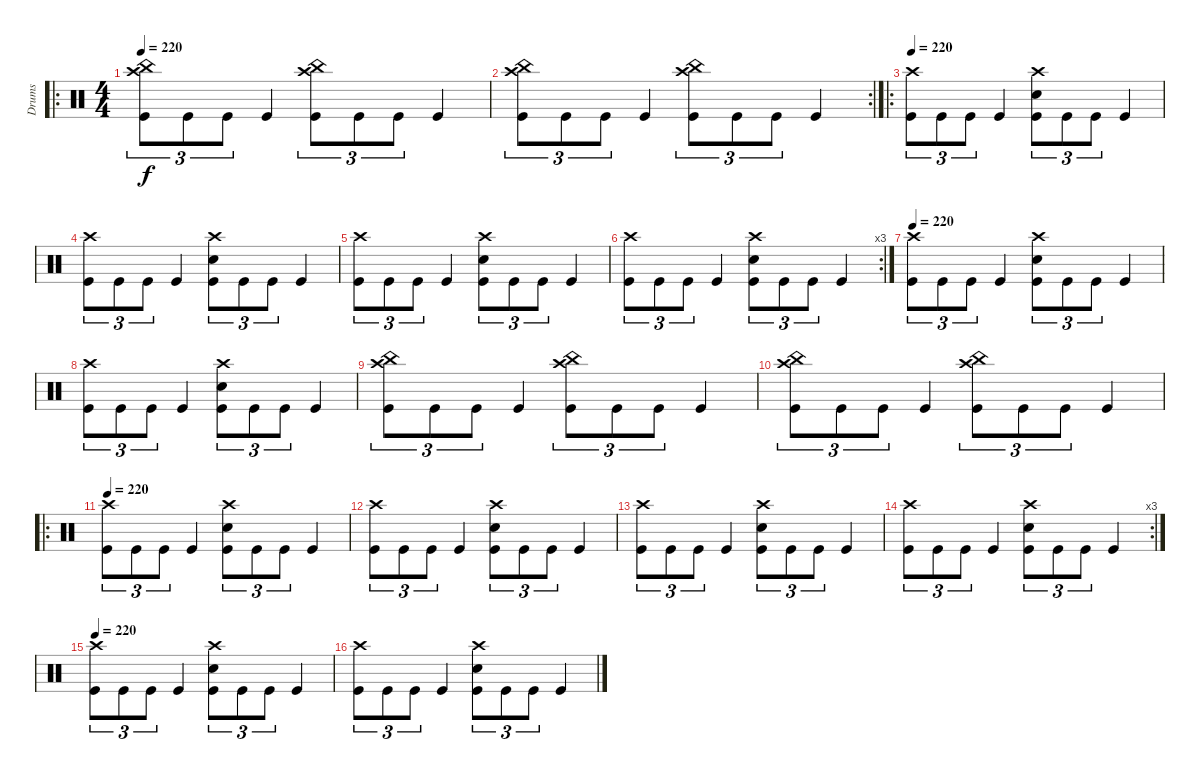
\track ("Drums" "Drums") {instrument percussion}
\staff {score}
\articulation defaults
\ro
\ts (4 4)
\tempo 220
\clef neutral
\ks c
("Crash high (hit)" "China (hit)" "Kick (hit)").8{tu (3 2) dy f} "Kick (hit)".8{tu (3 2)} "Kick (hit)".8{tu (3 2)} "Kick (hit)".4 ("Crash high (hit)" "China (hit)" "Kick (hit)").8{tu (3 2)} "Kick (hit)".8{tu (3 2)} "Kick (hit)".8{tu (3 2)} "Kick (hit)".4 |
\rc 2
("Crash high (hit)" "China (hit)" "Kick (hit)").8{tu (3 2)} "Kick (hit)".8{tu (3 2)} "Kick (hit)".8{tu (3 2)} "Kick (hit)".4 ("Crash high (hit)" "China (hit)" "Kick (hit)").8{tu (3 2)} "Kick (hit)".8{tu (3 2)} "Kick (hit)".8{tu (3 2)} "Kick (hit)".4 |
\ro
\tempo 220
("Crash high (hit)" "Kick (hit)").8{tu (3 2)} "Kick (hit)".8{tu (3 2)} "Kick (hit)".8{tu (3 2)} "Kick (hit)".4 ("Crash high (hit)" "Snare (hit) 2" "Kick (hit)").8{tu (3 2)} "Kick (hit)".8{tu (3 2)} "Kick (hit)".8{tu (3 2)} "Kick (hit)".4 |
("Crash high (hit)" "Kick (hit)").8{tu (3 2)} "Kick (hit)".8{tu (3 2)} "Kick (hit)".8{tu (3 2)} "Kick (hit)".4 ("Crash high (hit)" "Snare (hit) 2" "Kick (hit)").8{tu (3 2)} "Kick (hit)".8{tu (3 2)} "Kick (hit)".8{tu (3 2)} "Kick (hit)".4 |
("Crash high (hit)" "Kick (hit)").8{tu (3 2)} "Kick (hit)".8{tu (3 2)} "Kick (hit)".8{tu (3 2)} "Kick (hit)".4 ("Crash high (hit)" "Snare (hit) 2" "Kick (hit)").8{tu (3 2)} "Kick (hit)".8{tu (3 2)} "Kick (hit)".8{tu (3 2)} "Kick (hit)".4 |
\rc 3
("Crash high (hit)" "Kick (hit)").8{tu (3 2)} "Kick (hit)".8{tu (3 2)} "Kick (hit)".8{tu (3 2)} "Kick (hit)".4 ("Crash high (hit)" "Snare (hit) 2" "Kick (hit)").8{tu (3 2)} "Kick (hit)".8{tu (3 2)} "Kick (hit)".8{tu (3 2)} "Kick (hit)".4 |
\tempo 220
("Crash high (hit)" "Kick (hit)").8{tu (3 2)} "Kick (hit)".8{tu (3 2)} "Kick (hit)".8{tu (3 2)} "Kick (hit)".4 ("Crash high (hit)" "Snare (hit) 2" "Kick (hit)").8{tu (3 2)} "Kick (hit)".8{tu (3 2)} "Kick (hit)".8{tu (3 2)} "Kick (hit)".4 |
("Crash high (hit)" "Kick (hit)").8{tu (3 2)} "Kick (hit)".8{tu (3 2)} "Kick (hit)".8{tu (3 2)} "Kick (hit)".4 ("Crash high (hit)" "Snare (hit) 2" "Kick (hit)").8{tu (3 2)} "Kick (hit)".8{tu (3 2)} "Kick (hit)".8{tu (3 2)} "Kick (hit)".4 |
("Crash high (hit)" "China (hit)" "Kick (hit)").8{tu (3 2)} "Kick (hit)".8{tu (3 2)} "Kick (hit)".8{tu (3 2)} "Kick (hit)".4 ("Crash high (hit)" "China (hit)" "Kick (hit)").8{tu (3 2)} "Kick (hit)".8{tu (3 2)} "Kick (hit)".8{tu (3 2)} "Kick (hit)".4 |
("Crash high (hit)" "China (hit)" "Kick (hit)").8{tu (3 2)} "Kick (hit)".8{tu (3 2)} "Kick (hit)".8{tu (3 2)} "Kick (hit)".4 ("Crash high (hit)" "China (hit)" "Kick (hit)").8{tu (3 2)} "Kick (hit)".8{tu (3 2)} "Kick (hit)".8{tu (3 2)} "Kick (hit)".4 |
\ro
\tempo 220
("Crash high (hit)" "Kick (hit)").8{tu (3 2)} "Kick (hit)".8{tu (3 2)} "Kick (hit)".8{tu (3 2)} "Kick (hit)".4 ("Crash high (hit)" "Snare (hit) 2" "Kick (hit)").8{tu (3 2)} "Kick (hit)".8{tu (3 2)} "Kick (hit)".8{tu (3 2)} "Kick (hit)".4 |
("Crash high (hit)" "Kick (hit)").8{tu (3 2)} "Kick (hit)".8{tu (3 2)} "Kick (hit)".8{tu (3 2)} "Kick (hit)".4 ("Crash high (hit)" "Snare (hit) 2" "Kick (hit)").8{tu (3 2)} "Kick (hit)".8{tu (3 2)} "Kick (hit)".8{tu (3 2)} "Kick (hit)".4 |
("Crash high (hit)" "Kick (hit)").8{tu (3 2)} "Kick (hit)".8{tu (3 2)} "Kick (hit)".8{tu (3 2)} "Kick (hit)".4 ("Crash high (hit)" "Snare (hit) 2" "Kick (hit)").8{tu (3 2)} "Kick (hit)".8{tu (3 2)} "Kick (hit)".8{tu (3 2)} "Kick (hit)".4 |
\rc 3
("Crash high (hit)" "Kick (hit)").8{tu (3 2)} "Kick (hit)".8{tu (3 2)} "Kick (hit)".8{tu (3 2)} "Kick (hit)".4 ("Crash high (hit)" "Snare (hit) 2" "Kick (hit)").8{tu (3 2)} "Kick (hit)".8{tu (3 2)} "Kick (hit)".8{tu (3 2)} "Kick (hit)".4 |
\tempo 220
("Crash high (hit)" "Kick (hit)").8{tu (3 2)} "Kick (hit)".8{tu (3 2)} "Kick (hit)".8{tu (3 2)} "Kick (hit)".4 ("Crash high (hit)" "Snare (hit) 2" "Kick (hit)").8{tu (3 2)} "Kick (hit)".8{tu (3 2)} "Kick (hit)".8{tu (3 2)} "Kick (hit)".4 |
("Crash high (hit)" "Kick (hit)").8{tu (3 2)} "Kick (hit)".8{tu (3 2)} "Kick (hit)".8{tu (3 2)} "Kick (hit)".4 ("Crash high (hit)" "Snare (hit) 2" "Kick (hit)").8{tu (3 2)} "Kick (hit)".8{tu (3 2)} "Kick (hit)".8{tu (3 2)} "Kick (hit)".4
